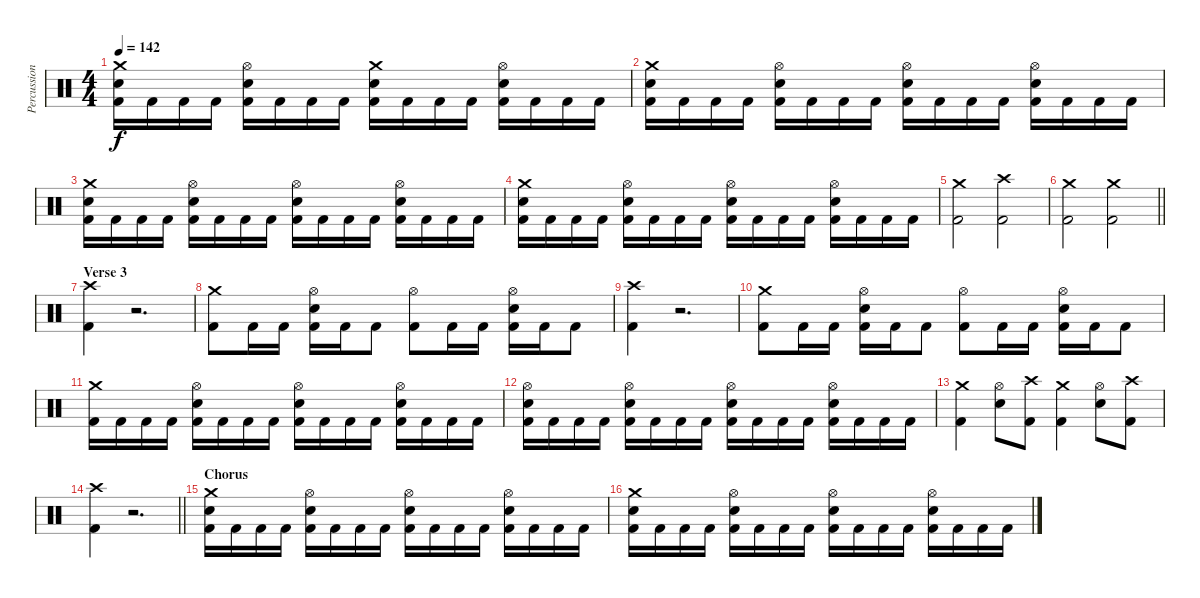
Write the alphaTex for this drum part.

\track ("Percussion" "Percussion") {instrument percussion}
\staff {score}
\articulation defaults
\ts (4 4)
\tempo 142
\clef neutral
\ks c
("Crash medium (hit)" "Snare (hit) 2" "Kick (hit) 2").16{dy f} "Kick (hit) 2".16 "Kick (hit) 2".16 "Kick (hit) 2".16 ("Hi-Hat (open)" "Snare (hit) 2" "Kick (hit) 2").16 "Kick (hit) 2".16 "Kick (hit) 2".16 "Kick (hit) 2".16 ("Crash medium (hit)" "Snare (hit) 2" "Kick (hit) 2").16 "Kick (hit) 2".16 "Kick (hit) 2".16 "Kick (hit) 2".16 ("Hi-Hat (open)" "Snare (hit) 2" "Kick (hit) 2").16 "Kick (hit) 2".16 "Kick (hit) 2".16 "Kick (hit) 2".16 |
("Crash medium (hit)" "Snare (hit) 2" "Kick (hit) 2").16 "Kick (hit) 2".16 "Kick (hit) 2".16 "Kick (hit) 2".16 ("Hi-Hat (open)" "Snare (hit) 2" "Kick (hit) 2").16 "Kick (hit) 2".16 "Kick (hit) 2".16 "Kick (hit) 2".16 ("Hi-Hat (open)" "Snare (hit) 2" "Kick (hit) 2").16 "Kick (hit) 2".16 "Kick (hit) 2".16 "Kick (hit) 2".16 ("Hi-Hat (open)" "Snare (hit) 2" "Kick (hit) 2").16 "Kick (hit) 2".16 "Kick (hit) 2".16 "Kick (hit) 2".16 |
("Crash medium (hit)" "Snare (hit) 2" "Kick (hit) 2").16 "Kick (hit) 2".16 "Kick (hit) 2".16 "Kick (hit) 2".16 ("Hi-Hat (open)" "Snare (hit) 2" "Kick (hit) 2").16 "Kick (hit) 2".16 "Kick (hit) 2".16 "Kick (hit) 2".16 ("Hi-Hat (open)" "Snare (hit) 2" "Kick (hit) 2").16 "Kick (hit) 2".16 "Kick (hit) 2".16 "Kick (hit) 2".16 ("Hi-Hat (open)" "Snare (hit) 2" "Kick (hit) 2").16 "Kick (hit) 2".16 "Kick (hit) 2".16 "Kick (hit) 2".16 |
("Crash medium (hit)" "Snare (hit) 2" "Kick (hit) 2").16 "Kick (hit) 2".16 "Kick (hit) 2".16 "Kick (hit) 2".16 ("Hi-Hat (open)" "Snare (hit) 2" "Kick (hit) 2").16 "Kick (hit) 2".16 "Kick (hit) 2".16 "Kick (hit) 2".16 ("Hi-Hat (open)" "Snare (hit) 2" "Kick (hit) 2").16 "Kick (hit) 2".16 "Kick (hit) 2".16 "Kick (hit) 2".16 ("Hi-Hat (open)" "Snare (hit) 2" "Kick (hit) 2").16 "Kick (hit) 2".16 "Kick (hit) 2".16 "Kick (hit) 2".16 |
("Crash medium (hit)" "Kick (hit) 2").2 ("Crash high (hit)" "Kick (hit) 2").2 |
\barLineRight lightlight
("Crash medium (hit)" "Kick (hit) 2").2 ("Crash medium (hit)" "Kick (hit) 2").2 |
\section ("" "Verse 3")
("Crash high (hit)" "Kick (hit) 2").4 r.2{d volume 0} |
("Crash medium (hit)" "Kick (hit) 2").8{volume 13} "Kick (hit) 2".16 "Kick (hit) 2".16 ("Hi-Hat (open)" "Snare (hit) 2" "Kick (hit) 2").16 "Kick (hit) 2".16 "Kick (hit) 2".8 ("Hi-Hat (open)" "Kick (hit) 2").8 "Kick (hit) 2".16 "Kick (hit) 2".16 ("Hi-Hat (open)" "Snare (hit) 2" "Kick (hit) 2").16 "Kick (hit) 2".16 "Kick (hit) 2".8 |
("Crash high (hit)" "Kick (hit) 2").4 r.2{d volume 0} |
("Crash medium (hit)" "Kick (hit) 2").8{volume 13} "Kick (hit) 2".16 "Kick (hit) 2".16 ("Hi-Hat (open)" "Snare (hit) 2" "Kick (hit) 2").16 "Kick (hit) 2".16 "Kick (hit) 2".8 ("Hi-Hat (open)" "Kick (hit) 2").8 "Kick (hit) 2".16 "Kick (hit) 2".16 ("Hi-Hat (open)" "Snare (hit) 2" "Kick (hit) 2").16 "Kick (hit) 2".16 "Kick (hit) 2".8 |
("Crash medium (hit)" "Kick (hit) 2").16 "Kick (hit) 2".16 "Kick (hit) 2".16 "Kick (hit) 2".16 ("Hi-Hat (open)" "Snare (hit) 2" "Kick (hit) 2").16 "Kick (hit) 2".16 "Kick (hit) 2".16 "Kick (hit) 2".16 ("Hi-Hat (open)" "Snare (hit) 2" "Kick (hit) 2").16 "Kick (hit) 2".16 "Kick (hit) 2".16 "Kick (hit) 2".16 ("Hi-Hat (open)" "Snare (hit) 2" "Kick (hit) 2").16 "Kick (hit) 2".16 "Kick (hit) 2".16 "Kick (hit) 2".16 |
("Hi-Hat (open)" "Snare (hit) 2" "Kick (hit) 2").16 "Kick (hit) 2".16 "Kick (hit) 2".16 "Kick (hit) 2".16 ("Hi-Hat (open)" "Snare (hit) 2" "Kick (hit) 2").16 "Kick (hit) 2".16 "Kick (hit) 2".16 "Kick (hit) 2".16 ("Hi-Hat (open)" "Snare (hit) 2" "Kick (hit) 2").16 "Kick (hit) 2".16 "Kick (hit) 2".16 "Kick (hit) 2".16 ("Hi-Hat (open)" "Snare (hit) 2" "Kick (hit) 2").16 "Kick (hit) 2".16 "Kick (hit) 2".16 "Kick (hit) 2".16 |
("Crash medium (hit)" "Kick (hit) 2").4 ("Hi-Hat (open)" "Snare (hit) 2").8 ("Crash high (hit)" "Kick (hit) 2").8 ("Crash medium (hit)" "Kick (hit) 2").4 ("Hi-Hat (open)" "Snare (hit) 2").8 ("Crash high (hit)" "Kick (hit) 2").8 |
\barLineRight lightlight
("Crash high (hit)" "Kick (hit) 2").4 r.2{d} |
\section ("" "Chorus")
("Crash medium (hit)" "Snare (hit) 2" "Kick (hit) 2").16 "Kick (hit) 2".16 "Kick (hit) 2".16 "Kick (hit) 2".16 ("Hi-Hat (open)" "Snare (hit) 2" "Kick (hit) 2").16 "Kick (hit) 2".16 "Kick (hit) 2".16 "Kick (hit) 2".16 ("Hi-Hat (open)" "Snare (hit) 2" "Kick (hit) 2").16 "Kick (hit) 2".16 "Kick (hit) 2".16 "Kick (hit) 2".16 ("Hi-Hat (open)" "Snare (hit) 2" "Kick (hit) 2").16 "Kick (hit) 2".16 "Kick (hit) 2".16 "Kick (hit) 2".16 |
("Crash medium (hit)" "Snare (hit) 2" "Kick (hit) 2").16 "Kick (hit) 2".16 "Kick (hit) 2".16 "Kick (hit) 2".16 ("Hi-Hat (open)" "Snare (hit) 2" "Kick (hit) 2").16 "Kick (hit) 2".16 "Kick (hit) 2".16 "Kick (hit) 2".16 ("Hi-Hat (open)" "Snare (hit) 2" "Kick (hit) 2").16 "Kick (hit) 2".16 "Kick (hit) 2".16 "Kick (hit) 2".16 ("Hi-Hat (open)" "Snare (hit) 2" "Kick (hit) 2").16 "Kick (hit) 2".16 "Kick (hit) 2".16 "Kick (hit) 2".16
